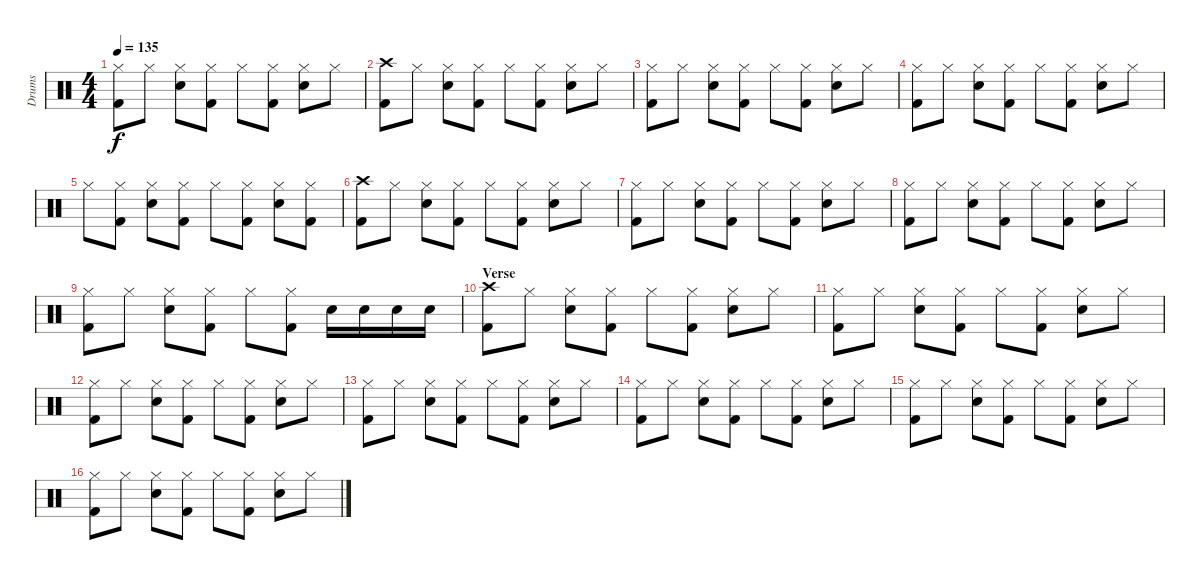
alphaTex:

\track ("Drums" "Drums") {instrument percussion}
\staff {score}
\articulation defaults
\ts (4 4)
\tempo 135
\clef neutral
\ks c
("Kick (hit) 2" "Hi-Hat (closed)").8{dy f} "Hi-Hat (closed)".8 ("Snare (hit) 2" "Hi-Hat (closed)").8 ("Kick (hit) 2" "Hi-Hat (closed)").8 "Hi-Hat (closed)".8 ("Kick (hit) 2" "Hi-Hat (closed)").8 ("Snare (hit) 2" "Hi-Hat (closed)").8 "Hi-Hat (closed)".8 |
("Crash high (hit)" "Kick (hit) 2").8 "Hi-Hat (closed)".8 ("Snare (hit) 2" "Hi-Hat (closed)").8 ("Kick (hit) 2" "Hi-Hat (closed)").8 "Hi-Hat (closed)".8 ("Kick (hit) 2" "Hi-Hat (closed)").8 ("Snare (hit) 2" "Hi-Hat (closed)").8 "Hi-Hat (closed)".8 |
("Kick (hit) 2" "Hi-Hat (closed)").8 "Hi-Hat (closed)".8 ("Snare (hit) 2" "Hi-Hat (closed)").8 ("Kick (hit) 2" "Hi-Hat (closed)").8 "Hi-Hat (closed)".8 ("Kick (hit) 2" "Hi-Hat (closed)").8 ("Snare (hit) 2" "Hi-Hat (closed)").8 "Hi-Hat (closed)".8 |
("Kick (hit) 2" "Hi-Hat (closed)").8 "Hi-Hat (closed)".8 ("Snare (hit) 2" "Hi-Hat (closed)").8 ("Kick (hit) 2" "Hi-Hat (closed)").8 "Hi-Hat (closed)".8 ("Kick (hit) 2" "Hi-Hat (closed)").8 ("Snare (hit) 2" "Hi-Hat (closed)").8 "Hi-Hat (closed)".8 |
"Hi-Hat (closed)".8 ("Kick (hit) 2" "Hi-Hat (closed)").8 ("Snare (hit) 2" "Hi-Hat (closed)").8 ("Kick (hit) 2" "Hi-Hat (closed)").8 "Hi-Hat (closed)".8 ("Kick (hit) 2" "Hi-Hat (closed)").8 ("Snare (hit) 2" "Hi-Hat (closed)").8 ("Kick (hit) 2" "Hi-Hat (closed)").8 |
("Crash high (hit)" "Kick (hit) 2").8 "Hi-Hat (closed)".8 ("Snare (hit) 2" "Hi-Hat (closed)").8 ("Kick (hit) 2" "Hi-Hat (closed)").8 "Hi-Hat (closed)".8 ("Kick (hit) 2" "Hi-Hat (closed)").8 ("Snare (hit) 2" "Hi-Hat (closed)").8 "Hi-Hat (closed)".8 |
("Kick (hit) 2" "Hi-Hat (closed)").8 "Hi-Hat (closed)".8 ("Snare (hit) 2" "Hi-Hat (closed)").8 ("Kick (hit) 2" "Hi-Hat (closed)").8 "Hi-Hat (closed)".8 ("Kick (hit) 2" "Hi-Hat (closed)").8 ("Snare (hit) 2" "Hi-Hat (closed)").8 "Hi-Hat (closed)".8 |
("Kick (hit) 2" "Hi-Hat (closed)").8 "Hi-Hat (closed)".8 ("Snare (hit) 2" "Hi-Hat (closed)").8 ("Kick (hit) 2" "Hi-Hat (closed)").8 "Hi-Hat (closed)".8 ("Kick (hit) 2" "Hi-Hat (closed)").8 ("Snare (hit) 2" "Hi-Hat (closed)").8 "Hi-Hat (closed)".8 |
("Kick (hit) 2" "Hi-Hat (closed)").8 "Hi-Hat (closed)".8 ("Snare (hit) 2" "Hi-Hat (closed)").8 ("Kick (hit) 2" "Hi-Hat (closed)").8 "Hi-Hat (closed)".8 ("Kick (hit) 2" "Hi-Hat (closed)").8 "Snare (hit) 2".16 "Snare (hit) 2".16 "Snare (hit) 2".16 "Snare (hit) 2".16 |
\section ("" "Verse")
("Crash high (hit)" "Kick (hit) 2").8 "Hi-Hat (closed)".8 ("Snare (hit) 2" "Hi-Hat (closed)").8 ("Kick (hit) 2" "Hi-Hat (closed)").8 "Hi-Hat (closed)".8 ("Kick (hit) 2" "Hi-Hat (closed)").8 ("Snare (hit) 2" "Hi-Hat (closed)").8 "Hi-Hat (closed)".8 |
("Kick (hit) 2" "Hi-Hat (closed)").8 "Hi-Hat (closed)".8 ("Snare (hit) 2" "Hi-Hat (closed)").8 ("Kick (hit) 2" "Hi-Hat (closed)").8 "Hi-Hat (closed)".8 ("Kick (hit) 2" "Hi-Hat (closed)").8 ("Snare (hit) 2" "Hi-Hat (closed)").8 "Hi-Hat (closed)".8 |
("Kick (hit) 2" "Hi-Hat (closed)").8 "Hi-Hat (closed)".8 ("Snare (hit) 2" "Hi-Hat (closed)").8 ("Kick (hit) 2" "Hi-Hat (closed)").8 "Hi-Hat (closed)".8 ("Kick (hit) 2" "Hi-Hat (closed)").8 ("Snare (hit) 2" "Hi-Hat (closed)").8 "Hi-Hat (closed)".8 |
("Kick (hit) 2" "Hi-Hat (closed)").8 "Hi-Hat (closed)".8 ("Snare (hit) 2" "Hi-Hat (closed)").8 ("Kick (hit) 2" "Hi-Hat (closed)").8 "Hi-Hat (closed)".8 ("Kick (hit) 2" "Hi-Hat (closed)").8 ("Snare (hit) 2" "Hi-Hat (closed)").8 "Hi-Hat (closed)".8 |
("Kick (hit) 2" "Hi-Hat (closed)").8 "Hi-Hat (closed)".8 ("Snare (hit) 2" "Hi-Hat (closed)").8 ("Kick (hit) 2" "Hi-Hat (closed)").8 "Hi-Hat (closed)".8 ("Kick (hit) 2" "Hi-Hat (closed)").8 ("Snare (hit) 2" "Hi-Hat (closed)").8 "Hi-Hat (closed)".8 |
("Kick (hit) 2" "Hi-Hat (closed)").8 "Hi-Hat (closed)".8 ("Snare (hit) 2" "Hi-Hat (closed)").8 ("Kick (hit) 2" "Hi-Hat (closed)").8 "Hi-Hat (closed)".8 ("Kick (hit) 2" "Hi-Hat (closed)").8 ("Snare (hit) 2" "Hi-Hat (closed)").8 "Hi-Hat (closed)".8 |
("Kick (hit) 2" "Hi-Hat (closed)").8 "Hi-Hat (closed)".8 ("Snare (hit) 2" "Hi-Hat (closed)").8 ("Kick (hit) 2" "Hi-Hat (closed)").8 "Hi-Hat (closed)".8 ("Kick (hit) 2" "Hi-Hat (closed)").8 ("Snare (hit) 2" "Hi-Hat (closed)").8 "Hi-Hat (closed)".8
